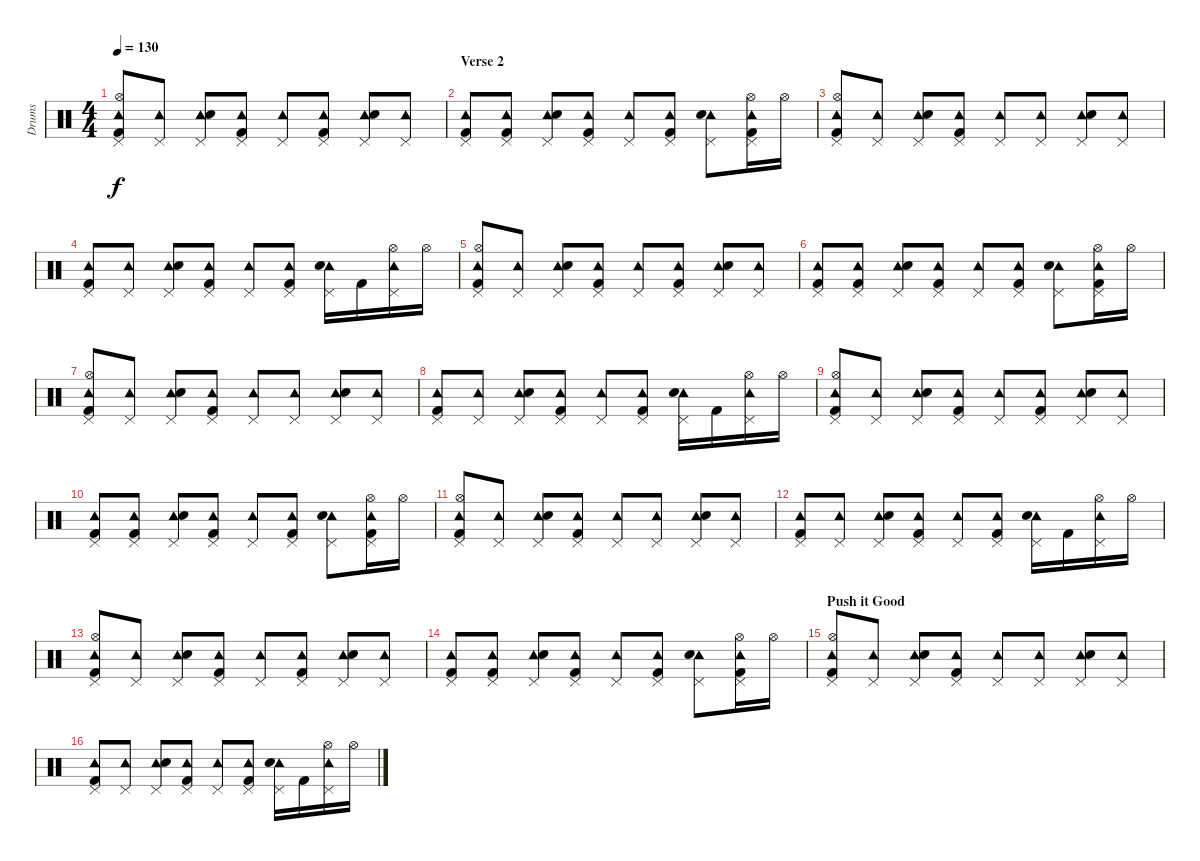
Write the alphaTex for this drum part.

\track ("Drums" "Drums") {instrument percussion}
\staff {score}
\articulation defaults
\ts (4 4)
\tempo 130
\clef neutral
\ks c
("Tambourine (hit)" "Pedal Hi-Hat (hit)" "Hi-Hat (open)" "Kick (hit) 2").8{dy f} ("Tambourine (hit)" "Pedal Hi-Hat (hit)").8 ("Tambourine (hit)" "Pedal Hi-Hat (hit)" "Electric Snare (hit)").8 ("Tambourine (hit)" "Pedal Hi-Hat (hit)" "Kick (hit) 2").8 ("Tambourine (hit)" "Pedal Hi-Hat (hit)").8 ("Tambourine (hit)" "Pedal Hi-Hat (hit)" "Kick (hit) 2").8 ("Tambourine (hit)" "Pedal Hi-Hat (hit)" "Electric Snare (hit)").8 ("Tambourine (hit)" "Pedal Hi-Hat (hit)").8 |
\section ("" "Verse 2")
("Tambourine (hit)" "Pedal Hi-Hat (hit)" "Kick (hit) 2").8 ("Tambourine (hit)" "Pedal Hi-Hat (hit)" "Kick (hit) 2").8 ("Tambourine (hit)" "Pedal Hi-Hat (hit)" "Electric Snare (hit)").8 ("Tambourine (hit)" "Pedal Hi-Hat (hit)" "Kick (hit) 2").8 ("Tambourine (hit)" "Pedal Hi-Hat (hit)").8 ("Tambourine (hit)" "Pedal Hi-Hat (hit)" "Kick (hit) 2").8 ("Tambourine (hit)" "Pedal Hi-Hat (hit)" "Electric Snare (hit)").8 ("Tambourine (hit)" "Pedal Hi-Hat (hit)" "Hi-Hat (open)" "Kick (hit) 2").16 "Hi-Hat (open)".16 |
("Tambourine (hit)" "Pedal Hi-Hat (hit)" "Hi-Hat (open)" "Kick (hit) 2").8 ("Tambourine (hit)" "Pedal Hi-Hat (hit)").8 ("Tambourine (hit)" "Pedal Hi-Hat (hit)" "Electric Snare (hit)").8 ("Tambourine (hit)" "Pedal Hi-Hat (hit)" "Kick (hit) 2").8 ("Tambourine (hit)" "Pedal Hi-Hat (hit)").8 ("Tambourine (hit)" "Pedal Hi-Hat (hit)").8 ("Tambourine (hit)" "Pedal Hi-Hat (hit)" "Electric Snare (hit)").8 ("Tambourine (hit)" "Pedal Hi-Hat (hit)").8 |
("Tambourine (hit)" "Pedal Hi-Hat (hit)" "Kick (hit) 2").8 ("Tambourine (hit)" "Pedal Hi-Hat (hit)").8 ("Tambourine (hit)" "Pedal Hi-Hat (hit)" "Electric Snare (hit)").8 ("Tambourine (hit)" "Pedal Hi-Hat (hit)" "Kick (hit) 2").8 ("Tambourine (hit)" "Pedal Hi-Hat (hit)").8 ("Tambourine (hit)" "Pedal Hi-Hat (hit)" "Kick (hit) 2").8 ("Tambourine (hit)" "Pedal Hi-Hat (hit)" "Electric Snare (hit)").16 "Kick (hit) 2".16 ("Tambourine (hit)" "Pedal Hi-Hat (hit)" "Hi-Hat (open)").16 "Hi-Hat (open)".16 |
("Tambourine (hit)" "Pedal Hi-Hat (hit)" "Hi-Hat (open)" "Kick (hit) 2").8 ("Tambourine (hit)" "Pedal Hi-Hat (hit)").8 ("Tambourine (hit)" "Pedal Hi-Hat (hit)" "Electric Snare (hit)").8 ("Tambourine (hit)" "Pedal Hi-Hat (hit)" "Kick (hit) 2").8 ("Tambourine (hit)" "Pedal Hi-Hat (hit)").8 ("Tambourine (hit)" "Pedal Hi-Hat (hit)" "Kick (hit) 2").8 ("Tambourine (hit)" "Pedal Hi-Hat (hit)" "Electric Snare (hit)").8 ("Tambourine (hit)" "Pedal Hi-Hat (hit)").8 |
("Tambourine (hit)" "Pedal Hi-Hat (hit)" "Kick (hit) 2").8 ("Tambourine (hit)" "Pedal Hi-Hat (hit)" "Kick (hit) 2").8 ("Tambourine (hit)" "Pedal Hi-Hat (hit)" "Electric Snare (hit)").8 ("Tambourine (hit)" "Pedal Hi-Hat (hit)" "Kick (hit) 2").8 ("Tambourine (hit)" "Pedal Hi-Hat (hit)").8 ("Tambourine (hit)" "Pedal Hi-Hat (hit)" "Kick (hit) 2").8 ("Tambourine (hit)" "Pedal Hi-Hat (hit)" "Electric Snare (hit)").8 ("Tambourine (hit)" "Pedal Hi-Hat (hit)" "Hi-Hat (open)" "Kick (hit) 2").16 "Hi-Hat (open)".16 |
("Tambourine (hit)" "Pedal Hi-Hat (hit)" "Hi-Hat (open)" "Kick (hit) 2").8 ("Tambourine (hit)" "Pedal Hi-Hat (hit)").8 ("Tambourine (hit)" "Pedal Hi-Hat (hit)" "Electric Snare (hit)").8 ("Tambourine (hit)" "Pedal Hi-Hat (hit)" "Kick (hit) 2").8 ("Tambourine (hit)" "Pedal Hi-Hat (hit)").8 ("Tambourine (hit)" "Pedal Hi-Hat (hit)").8 ("Tambourine (hit)" "Pedal Hi-Hat (hit)" "Electric Snare (hit)").8 ("Tambourine (hit)" "Pedal Hi-Hat (hit)").8 |
("Tambourine (hit)" "Pedal Hi-Hat (hit)" "Kick (hit) 2").8 ("Tambourine (hit)" "Pedal Hi-Hat (hit)").8 ("Tambourine (hit)" "Pedal Hi-Hat (hit)" "Electric Snare (hit)").8 ("Tambourine (hit)" "Pedal Hi-Hat (hit)" "Kick (hit) 2").8 ("Tambourine (hit)" "Pedal Hi-Hat (hit)").8 ("Tambourine (hit)" "Pedal Hi-Hat (hit)" "Kick (hit) 2").8 ("Tambourine (hit)" "Pedal Hi-Hat (hit)" "Electric Snare (hit)").16 "Kick (hit) 2".16 ("Tambourine (hit)" "Pedal Hi-Hat (hit)" "Hi-Hat (open)").16 "Hi-Hat (open)".16 |
("Tambourine (hit)" "Pedal Hi-Hat (hit)" "Hi-Hat (open)" "Kick (hit) 2").8 ("Tambourine (hit)" "Pedal Hi-Hat (hit)").8 ("Tambourine (hit)" "Pedal Hi-Hat (hit)" "Electric Snare (hit)").8 ("Tambourine (hit)" "Pedal Hi-Hat (hit)" "Kick (hit) 2").8 ("Tambourine (hit)" "Pedal Hi-Hat (hit)").8 ("Tambourine (hit)" "Pedal Hi-Hat (hit)" "Kick (hit) 2").8 ("Tambourine (hit)" "Pedal Hi-Hat (hit)" "Electric Snare (hit)").8 ("Tambourine (hit)" "Pedal Hi-Hat (hit)").8 |
("Tambourine (hit)" "Pedal Hi-Hat (hit)" "Kick (hit) 2").8 ("Tambourine (hit)" "Pedal Hi-Hat (hit)" "Kick (hit) 2").8 ("Tambourine (hit)" "Pedal Hi-Hat (hit)" "Electric Snare (hit)").8 ("Tambourine (hit)" "Pedal Hi-Hat (hit)" "Kick (hit) 2").8 ("Tambourine (hit)" "Pedal Hi-Hat (hit)").8 ("Tambourine (hit)" "Pedal Hi-Hat (hit)" "Kick (hit) 2").8 ("Tambourine (hit)" "Pedal Hi-Hat (hit)" "Electric Snare (hit)").8 ("Tambourine (hit)" "Pedal Hi-Hat (hit)" "Hi-Hat (open)" "Kick (hit) 2").16 "Hi-Hat (open)".16 |
("Tambourine (hit)" "Pedal Hi-Hat (hit)" "Hi-Hat (open)" "Kick (hit) 2").8 ("Tambourine (hit)" "Pedal Hi-Hat (hit)").8 ("Tambourine (hit)" "Pedal Hi-Hat (hit)" "Electric Snare (hit)").8 ("Tambourine (hit)" "Pedal Hi-Hat (hit)" "Kick (hit) 2").8 ("Tambourine (hit)" "Pedal Hi-Hat (hit)").8 ("Tambourine (hit)" "Pedal Hi-Hat (hit)").8 ("Tambourine (hit)" "Pedal Hi-Hat (hit)" "Electric Snare (hit)").8 ("Tambourine (hit)" "Pedal Hi-Hat (hit)").8 |
("Tambourine (hit)" "Pedal Hi-Hat (hit)" "Kick (hit) 2").8 ("Tambourine (hit)" "Pedal Hi-Hat (hit)").8 ("Tambourine (hit)" "Pedal Hi-Hat (hit)" "Electric Snare (hit)").8 ("Tambourine (hit)" "Pedal Hi-Hat (hit)" "Kick (hit) 2").8 ("Tambourine (hit)" "Pedal Hi-Hat (hit)").8 ("Tambourine (hit)" "Pedal Hi-Hat (hit)" "Kick (hit) 2").8 ("Tambourine (hit)" "Pedal Hi-Hat (hit)" "Electric Snare (hit)").16 "Kick (hit) 2".16 ("Tambourine (hit)" "Pedal Hi-Hat (hit)" "Hi-Hat (open)").16 "Hi-Hat (open)".16 |
("Tambourine (hit)" "Pedal Hi-Hat (hit)" "Hi-Hat (open)" "Kick (hit) 2").8 ("Tambourine (hit)" "Pedal Hi-Hat (hit)").8 ("Tambourine (hit)" "Pedal Hi-Hat (hit)" "Electric Snare (hit)").8 ("Tambourine (hit)" "Pedal Hi-Hat (hit)" "Kick (hit) 2").8 ("Tambourine (hit)" "Pedal Hi-Hat (hit)").8 ("Tambourine (hit)" "Pedal Hi-Hat (hit)" "Kick (hit) 2").8 ("Tambourine (hit)" "Pedal Hi-Hat (hit)" "Electric Snare (hit)").8 ("Tambourine (hit)" "Pedal Hi-Hat (hit)").8 |
("Tambourine (hit)" "Pedal Hi-Hat (hit)" "Kick (hit) 2").8 ("Tambourine (hit)" "Pedal Hi-Hat (hit)" "Kick (hit) 2").8 ("Tambourine (hit)" "Pedal Hi-Hat (hit)" "Electric Snare (hit)").8 ("Tambourine (hit)" "Pedal Hi-Hat (hit)" "Kick (hit) 2").8 ("Tambourine (hit)" "Pedal Hi-Hat (hit)").8 ("Tambourine (hit)" "Pedal Hi-Hat (hit)" "Kick (hit) 2").8 ("Tambourine (hit)" "Pedal Hi-Hat (hit)" "Electric Snare (hit)").8 ("Tambourine (hit)" "Pedal Hi-Hat (hit)" "Hi-Hat (open)" "Kick (hit) 2").16 "Hi-Hat (open)".16 |
\section ("" "Push it Good")
("Tambourine (hit)" "Pedal Hi-Hat (hit)" "Hi-Hat (open)" "Kick (hit) 2").8 ("Tambourine (hit)" "Pedal Hi-Hat (hit)").8 ("Tambourine (hit)" "Pedal Hi-Hat (hit)" "Electric Snare (hit)").8 ("Tambourine (hit)" "Pedal Hi-Hat (hit)" "Kick (hit) 2").8 ("Tambourine (hit)" "Pedal Hi-Hat (hit)").8 ("Tambourine (hit)" "Pedal Hi-Hat (hit)").8 ("Tambourine (hit)" "Pedal Hi-Hat (hit)" "Electric Snare (hit)").8 ("Tambourine (hit)" "Pedal Hi-Hat (hit)").8 |
("Tambourine (hit)" "Pedal Hi-Hat (hit)" "Kick (hit) 2").8 ("Tambourine (hit)" "Pedal Hi-Hat (hit)").8 ("Tambourine (hit)" "Pedal Hi-Hat (hit)" "Electric Snare (hit)").8 ("Tambourine (hit)" "Pedal Hi-Hat (hit)" "Kick (hit) 2").8 ("Tambourine (hit)" "Pedal Hi-Hat (hit)").8 ("Tambourine (hit)" "Pedal Hi-Hat (hit)" "Kick (hit) 2").8 ("Tambourine (hit)" "Pedal Hi-Hat (hit)" "Electric Snare (hit)").16 "Kick (hit) 2".16 ("Tambourine (hit)" "Pedal Hi-Hat (hit)" "Hi-Hat (open)").16 "Hi-Hat (open)".16
